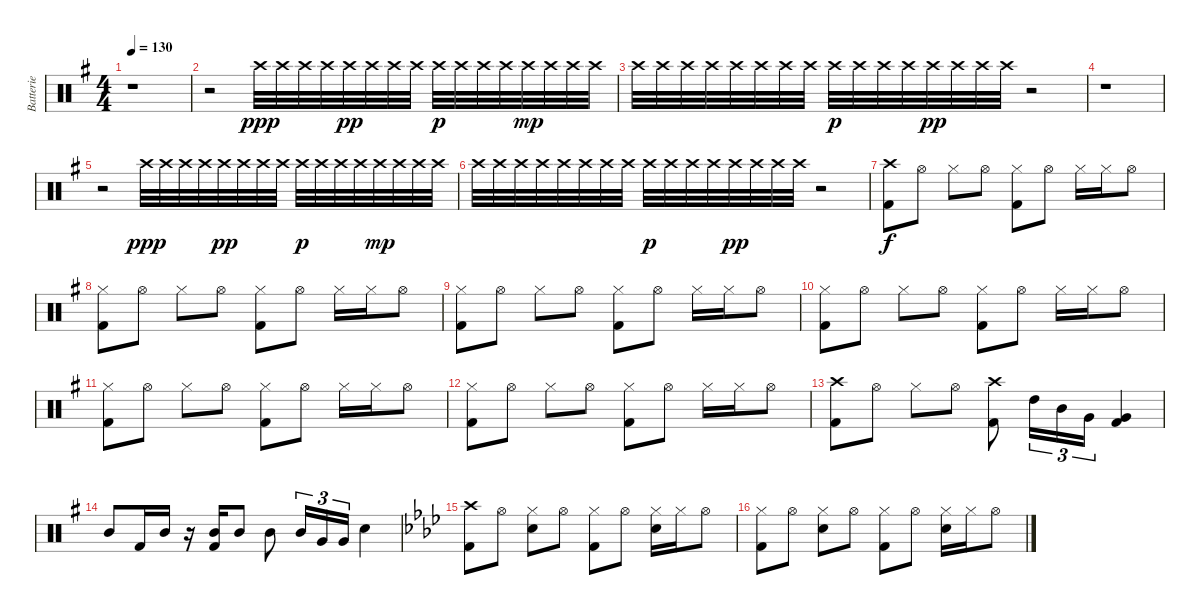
\track ("Batterie" "Batterie") {instrument percussion}
\staff {score}
\articulation defaults
\ts (4 4)
\tempo 130
\clef neutral
\ks g
r.1{dy f} |
r.2 "Crash high (hit)".32{dy ppp} "Crash high (hit)".32 "Crash high (hit)".32 "Crash high (hit)".32 "Crash high (hit)".32{dy pp} "Crash high (hit)".32 "Crash high (hit)".32 "Crash high (hit)".32 "Crash high (hit)".32{dy p} "Crash high (hit)".32 "Crash high (hit)".32 "Crash high (hit)".32 "Crash high (hit)".32{dy mp} "Crash high (hit)".32 "Crash high (hit)".32 "Crash high (hit)".32 |
"Crash high (hit)".32 "Crash high (hit)".32 "Crash high (hit)".32 "Crash high (hit)".32 "Crash high (hit)".32 "Crash high (hit)".32 "Crash high (hit)".32 "Crash high (hit)".32 "Crash high (hit)".32{dy p} "Crash high (hit)".32 "Crash high (hit)".32 "Crash high (hit)".32 "Crash high (hit)".32{dy pp} "Crash high (hit)".32 "Crash high (hit)".32 "Crash high (hit)".32 r.2 |
r.1 |
r.2 "Crash high (hit)".32{dy ppp} "Crash high (hit)".32 "Crash high (hit)".32 "Crash high (hit)".32 "Crash high (hit)".32{dy pp} "Crash high (hit)".32 "Crash high (hit)".32 "Crash high (hit)".32 "Crash high (hit)".32{dy p} "Crash high (hit)".32 "Crash high (hit)".32 "Crash high (hit)".32 "Crash high (hit)".32{dy mp} "Crash high (hit)".32 "Crash high (hit)".32 "Crash high (hit)".32 |
"Crash high (hit)".32 "Crash high (hit)".32 "Crash high (hit)".32 "Crash high (hit)".32 "Crash high (hit)".32 "Crash high (hit)".32 "Crash high (hit)".32 "Crash high (hit)".32 "Crash high (hit)".32{dy p} "Crash high (hit)".32 "Crash high (hit)".32 "Crash high (hit)".32 "Crash high (hit)".32{dy pp} "Crash high (hit)".32 "Crash high (hit)".32 "Crash high (hit)".32 r.2 |
("Crash high (hit)" "Kick (hit) 2").8{dy f} "Hi-Hat (open)".8 "Hi-Hat (closed)".8 "Hi-Hat (open)".8 ("Hi-Hat (closed)" "Kick (hit) 2").8 "Hi-Hat (open)".8 "Hi-Hat (closed)".16 "Hi-Hat (closed)".16 "Hi-Hat (open)".8 |
("Hi-Hat (closed)" "Kick (hit) 2").8 "Hi-Hat (open)".8 "Hi-Hat (closed)".8 "Hi-Hat (open)".8 ("Hi-Hat (closed)" "Kick (hit) 2").8 "Hi-Hat (open)".8 "Hi-Hat (closed)".16 "Hi-Hat (closed)".16 "Hi-Hat (open)".8 |
("Hi-Hat (closed)" "Kick (hit) 2").8 "Hi-Hat (open)".8 "Hi-Hat (closed)".8 "Hi-Hat (open)".8 ("Hi-Hat (closed)" "Kick (hit) 2").8 "Hi-Hat (open)".8 "Hi-Hat (closed)".16 "Hi-Hat (closed)".16 "Hi-Hat (open)".8 |
("Hi-Hat (closed)" "Kick (hit) 2").8 "Hi-Hat (open)".8 "Hi-Hat (closed)".8 "Hi-Hat (open)".8 ("Hi-Hat (closed)" "Kick (hit) 2").8 "Hi-Hat (open)".8 "Hi-Hat (closed)".16 "Hi-Hat (closed)".16 "Hi-Hat (open)".8 |
("Hi-Hat (closed)" "Kick (hit) 2").8 "Hi-Hat (open)".8 "Hi-Hat (closed)".8 "Hi-Hat (open)".8 ("Hi-Hat (closed)" "Kick (hit) 2").8 "Hi-Hat (open)".8 "Hi-Hat (closed)".16 "Hi-Hat (closed)".16 "Hi-Hat (open)".8 |
("Hi-Hat (closed)" "Kick (hit) 2").8 "Hi-Hat (open)".8 "Hi-Hat (closed)".8 "Hi-Hat (open)".8 ("Hi-Hat (closed)" "Kick (hit) 2").8 "Hi-Hat (open)".8 "Hi-Hat (closed)".16 "Hi-Hat (closed)".16 "Hi-Hat (open)".8 |
("Crash high (hit)" "Kick (hit) 2").8 "Hi-Hat (open)".8 "Hi-Hat (closed)".8 "Hi-Hat (open)".8 ("Crash high (hit)" "Kick (hit) 2").8 "High Tom (hit)".16{tu (3 2)} "Mid Tom (hit)".16{tu (3 2)} "Very Low Tom (hit)".16{tu (3 2)} ("Very Low Tom (hit)" "Kick (hit) 2").4 |
"Mid Tom (hit)".8 "Kick (hit) 2".16 "Mid Tom (hit)".16 r.16 ("Mid Tom (hit)" "Kick (hit) 2").16 "Mid Tom (hit)".8 "Mid Tom (hit)".8 "Mid Tom (hit)".16{tu (3 2)} "Very Low Tom (hit)".16{tu (3 2)} "Very Low Tom (hit)".16{tu (3 2)} "Snare (hit) 2".4 |
\ks ab
("Crash high (hit)" "Kick (hit) 2").8 "Hi-Hat (open)".8 ("Hi-Hat (closed)" "Snare (hit) 2").8 "Hi-Hat (open)".8 ("Hi-Hat (closed)" "Kick (hit) 2").8 "Hi-Hat (open)".8 ("Hi-Hat (closed)" "Snare (hit) 2").16 "Hi-Hat (closed)".16 "Hi-Hat (open)".8 |
("Hi-Hat (closed)" "Kick (hit) 2").8 "Hi-Hat (open)".8 ("Hi-Hat (closed)" "Snare (hit) 2").8 "Hi-Hat (open)".8 ("Hi-Hat (closed)" "Kick (hit) 2").8 "Hi-Hat (open)".8 ("Hi-Hat (closed)" "Snare (hit) 2").16 "Hi-Hat (closed)".16 "Hi-Hat (open)".8
